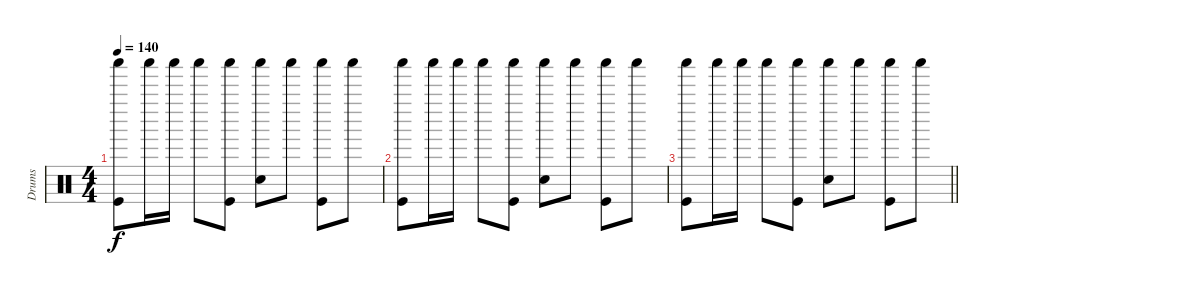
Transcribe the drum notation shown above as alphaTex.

\track ("Drums" "Drums") {instrument percussion}
\staff {score}
\articulation defaults
\ts (4 4)
\tempo 140
\clef neutral
\ks c
("Shaker (hit)" "Kick (hit)").8{dy f} "Shaker (hit)".16 "Shaker (hit)".16 "Shaker (hit)".8 ("Shaker (hit)" "Kick (hit)").8 ("Shaker (hit)" "Hand Clap (hit)").8 "Shaker (hit)".8 ("Shaker (hit)" "Kick (hit)").8 "Shaker (hit)".8 |
("Shaker (hit)" "Kick (hit)").8 "Shaker (hit)".16 "Shaker (hit)".16 "Shaker (hit)".8 ("Shaker (hit)" "Kick (hit)").8 ("Shaker (hit)" "Hand Clap (hit)").8 "Shaker (hit)".8 ("Shaker (hit)" "Kick (hit)").8 "Shaker (hit)".8 |
\barLineRight lightlight
("Shaker (hit)" "Kick (hit)").8 "Shaker (hit)".16 "Shaker (hit)".16 "Shaker (hit)".8 ("Shaker (hit)" "Kick (hit)").8 ("Shaker (hit)" "Hand Clap (hit)").8 "Shaker (hit)".8 ("Shaker (hit)" "Kick (hit)").8 "Shaker (hit)".8
